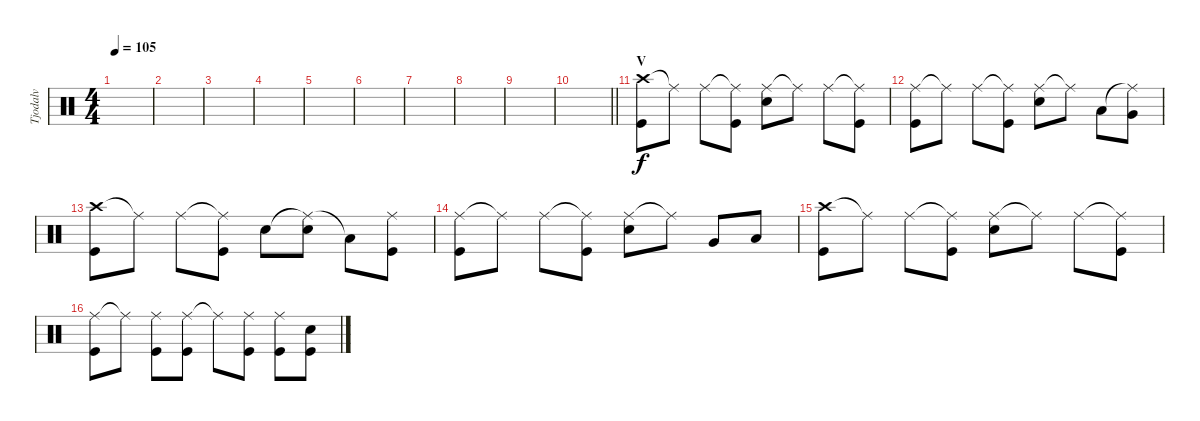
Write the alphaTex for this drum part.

\track ("Tjodalv" "Tjodalv") {instrument percussion}
\staff {score}
\articulation defaults
\ts (4 4)
\tempo 105
\clef neutral
\ks c
|
|
|
|
|
|
|
|
|
\barLineRight lightlight
|
\section ("" "V")
("Crash high (hit)" "Kick (hit)").8 "Ride (middle)"{t}.8 "Ride (middle)".8 ("Ride (middle)"{t} "Kick (hit)").8 ("Ride (middle)" "Snare (hit) 2").8 "Ride (middle)"{t}.8 "Ride (middle)".8 ("Ride (middle)"{t} "Kick (hit)").8 |
("Ride (middle)" "Kick (hit)").8 "Ride (middle)"{t}.8 "Ride (middle)".8 ("Ride (middle)"{t} "Kick (hit)").8 ("Ride (middle)" "Snare (hit) 2").8 "Ride (middle)"{t}.8 "Low Tom (hit)".8 ("Ride (middle)"{t} "Very Low Tom (hit)").8 |
("Crash high (hit)" "Kick (hit)").8 "Ride (middle)"{t}.8 "Ride (middle)".8 ("Ride (middle)"{t} "Kick (hit)").8 "Snare (hit) 2".8 ("Ride (middle)"{t} "Snare (hit) 2").8 "Low Tom (hit)"{t}.8 ("Ride (middle)" "Kick (hit)").8 |
("Ride (middle)" "Kick (hit)").8 "Ride (middle)"{t}.8 "Ride (middle)".8 ("Ride (middle)"{t} "Kick (hit)").8 ("Ride (middle)" "Snare (hit) 2").8 "Ride (middle)"{t}.8 "Very Low Tom (hit)".8 "Low Floor Tom (hit)".8 |
("Crash high (hit)" "Kick (hit)").8 "Ride (middle)"{t}.8 "Ride (middle)".8 ("Ride (middle)"{t} "Kick (hit)").8 ("Ride (middle)" "Snare (hit) 2").8 "Ride (middle)"{t}.8 "Ride (middle)".8 ("Ride (middle)"{t} "Kick (hit)").8 |
("Ride (middle)" "Kick (hit)").8 "Ride (middle)"{t}.8 ("Ride (middle)" "Kick (hit)").8 ("Ride (middle)" "Kick (hit)").8 "Ride (middle)"{t}.8 ("Ride (middle)" "Kick (hit)").8 ("Ride (middle)" "Kick (hit)").8 ("Snare (hit) 2" "Kick (hit)").8
